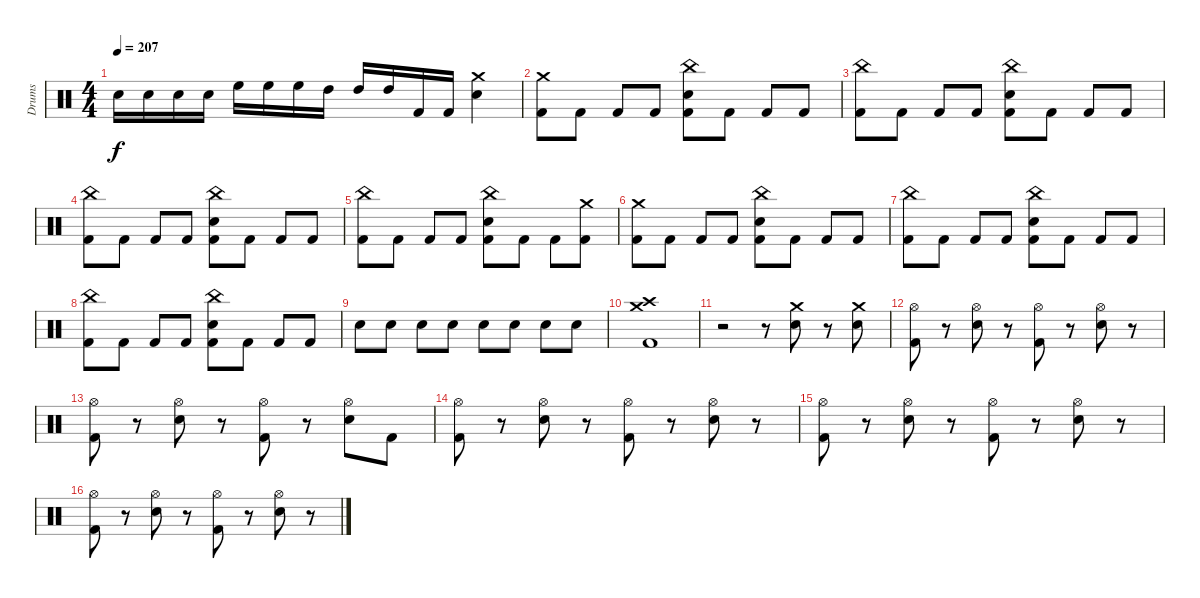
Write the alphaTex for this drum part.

\track ("Drums" "Drums") {instrument percussion}
\staff {score}
\articulation defaults
\ts (4 4)
\tempo 207
\clef neutral
\ks c "Electric Snare (hit)".16{dy f} "Electric Snare (hit)".16 "Electric Snare (hit)".16 "Electric Snare (hit)".16 "High Floor Tom (hit)".16 "High Floor Tom (hit)".16 "High Floor Tom (hit)".16 "High Tom (hit)".16 "High Tom (hit)".16 "High Tom (hit)".16 "Kick (hit) 2".16 "Kick (hit) 2".16
("Crash medium (hit)" "Electric Snare (hit)").4 |
("Crash medium (hit)" "Kick (hit) 2").8 "Kick (hit) 2".8 "Kick (hit) 2".8 "Kick (hit) 2".8 ("China (hit)" "Electric Snare (hit)" "Kick (hit) 2").8 "Kick (hit) 2".8 "Kick (hit) 2".8 "Kick (hit) 2".8 |
("China (hit)" "Kick (hit) 2").8 "Kick (hit) 2".8 "Kick (hit) 2".8 "Kick (hit) 2".8 ("China (hit)" "Electric Snare (hit)" "Kick (hit) 2").8 "Kick (hit) 2".8 "Kick (hit) 2".8 "Kick (hit) 2".8 |
("China (hit)" "Kick (hit) 2").8 "Kick (hit) 2".8 "Kick (hit) 2".8 "Kick (hit) 2".8 ("China (hit)" "Electric Snare (hit)" "Kick (hit) 2").8 "Kick (hit) 2".8 "Kick (hit) 2".8 "Kick (hit) 2".8 |
("China (hit)" "Kick (hit) 2").8 "Kick (hit) 2".8 "Kick (hit) 2".8 "Kick (hit) 2".8 ("China (hit)" "Electric Snare (hit)" "Kick (hit) 2").8 "Kick (hit) 2".8 "Kick (hit) 2".8 ("Crash medium (hit)" "Kick (hit) 2").8 |
("Crash medium (hit)" "Kick (hit) 2").8 "Kick (hit) 2".8 "Kick (hit) 2".8 "Kick (hit) 2".8 ("China (hit)" "Electric Snare (hit)" "Kick (hit) 2").8 "Kick (hit) 2".8 "Kick (hit) 2".8 "Kick (hit) 2".8 |
("China (hit)" "Kick (hit) 2").8 "Kick (hit) 2".8 "Kick (hit) 2".8 "Kick (hit) 2".8 ("China (hit)" "Electric Snare (hit)" "Kick (hit) 2").8 "Kick (hit) 2".8 "Kick (hit) 2".8 "Kick (hit) 2".8 |
("China (hit)" "Kick (hit) 2").8 "Kick (hit) 2".8 "Kick (hit) 2".8 "Kick (hit) 2".8 ("China (hit)" "Electric Snare (hit)" "Kick (hit) 2").8 "Kick (hit) 2".8 "Kick (hit) 2".8 "Kick (hit) 2".8 |
"Electric Snare (hit)".8 "Electric Snare (hit)".8 "Electric Snare (hit)".8 "Electric Snare (hit)".8 "Electric Snare (hit)".8 "Electric Snare (hit)".8 "Electric Snare (hit)".8 "Electric Snare (hit)".8 |
("Crash medium (hit)" "Crash high (hit)" "Kick (hit) 2").1 |
r.2 r.8 ("Crash medium (hit)" "Electric Snare (hit)").8 r.8 ("Crash medium (hit)" "Electric Snare (hit)").8 |
("Hi-Hat (open)" "Kick (hit) 2").8 r.8 ("Hi-Hat (open)" "Electric Snare (hit)").8 r.8 ("Hi-Hat (open)" "Kick (hit) 2").8 r.8 ("Hi-Hat (open)" "Electric Snare (hit)").8 r.8 |
("Hi-Hat (open)" "Kick (hit) 2").8 r.8 ("Hi-Hat (open)" "Electric Snare (hit)").8 r.8 ("Hi-Hat (open)" "Kick (hit) 2").8 r.8 ("Hi-Hat (open)" "Electric Snare (hit)").8 "Kick (hit) 2".8 |
("Hi-Hat (open)" "Kick (hit) 2").8 r.8 ("Hi-Hat (open)" "Electric Snare (hit)").8 r.8 ("Hi-Hat (open)" "Kick (hit) 2").8 r.8 ("Hi-Hat (open)" "Electric Snare (hit)").8 r.8 |
("Hi-Hat (open)" "Kick (hit) 2").8 r.8 ("Hi-Hat (open)" "Electric Snare (hit)").8 r.8 ("Hi-Hat (open)" "Kick (hit) 2").8 r.8 ("Hi-Hat (open)" "Electric Snare (hit)").8 r.8 |
("Hi-Hat (open)" "Kick (hit) 2").8 r.8 ("Hi-Hat (open)" "Electric Snare (hit)").8 r.8 ("Hi-Hat (open)" "Kick (hit) 2").8 r.8 ("Hi-Hat (open)" "Electric Snare (hit)").8 r.8
